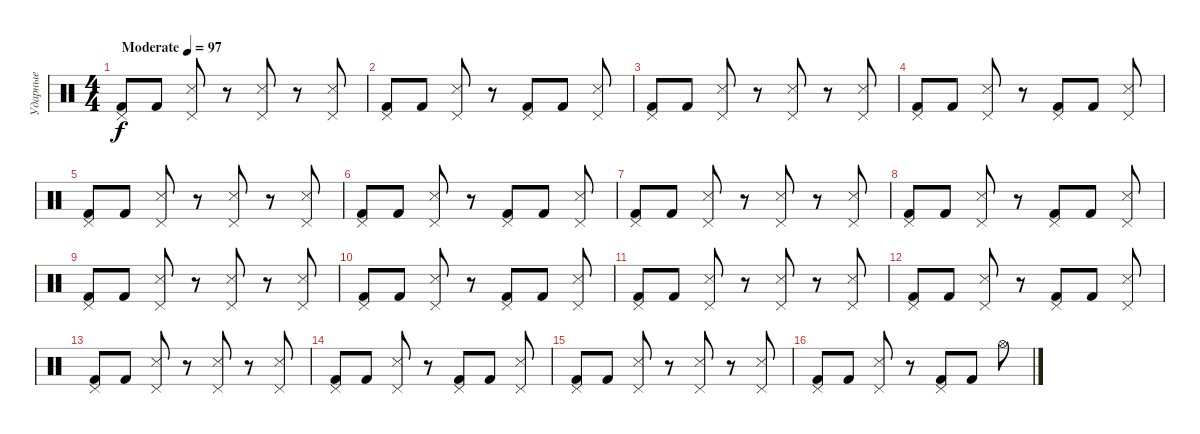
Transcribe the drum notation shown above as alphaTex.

\track ("Ударные" "Ударные") {instrument percussion}
\staff {score}
\articulation defaults
\ts (4 4)
\tempo (97 "Moderate")
\clef neutral
\ks c
("Kick (hit) 2" "Pedal Hi-Hat (hit)").8{dy f} "Kick (hit) 2".8 ("Snare (side stick) 3" "Pedal Hi-Hat (hit)").8 r.8 ("Snare (side stick) 3" "Pedal Hi-Hat (hit)").8 r.8 ("Snare (side stick) 3" "Pedal Hi-Hat (hit)").8 |
("Kick (hit) 2" "Pedal Hi-Hat (hit)").8 "Kick (hit) 2".8 ("Snare (side stick) 3" "Pedal Hi-Hat (hit)").8 r.8 ("Kick (hit) 2" "Pedal Hi-Hat (hit)").8 "Kick (hit) 2".8 ("Snare (side stick) 3" "Pedal Hi-Hat (hit)").8 |
("Kick (hit) 2" "Pedal Hi-Hat (hit)").8 "Kick (hit) 2".8 ("Snare (side stick) 3" "Pedal Hi-Hat (hit)").8 r.8 ("Snare (side stick) 3" "Pedal Hi-Hat (hit)").8 r.8 ("Snare (side stick) 3" "Pedal Hi-Hat (hit)").8 |
("Kick (hit) 2" "Pedal Hi-Hat (hit)").8 "Kick (hit) 2".8 ("Snare (side stick) 3" "Pedal Hi-Hat (hit)").8 r.8 ("Kick (hit) 2" "Pedal Hi-Hat (hit)").8 "Kick (hit) 2".8 ("Snare (side stick) 3" "Pedal Hi-Hat (hit)").8 |
("Kick (hit) 2" "Pedal Hi-Hat (hit)").8 "Kick (hit) 2".8 ("Snare (side stick) 3" "Pedal Hi-Hat (hit)").8 r.8 ("Snare (side stick) 3" "Pedal Hi-Hat (hit)").8 r.8 ("Snare (side stick) 3" "Pedal Hi-Hat (hit)").8 |
("Kick (hit) 2" "Pedal Hi-Hat (hit)").8 "Kick (hit) 2".8 ("Snare (side stick) 3" "Pedal Hi-Hat (hit)").8 r.8 ("Kick (hit) 2" "Pedal Hi-Hat (hit)").8 "Kick (hit) 2".8 ("Snare (side stick) 3" "Pedal Hi-Hat (hit)").8 |
("Kick (hit) 2" "Pedal Hi-Hat (hit)").8 "Kick (hit) 2".8 ("Snare (side stick) 3" "Pedal Hi-Hat (hit)").8 r.8 ("Snare (side stick) 3" "Pedal Hi-Hat (hit)").8 r.8 ("Snare (side stick) 3" "Pedal Hi-Hat (hit)").8 |
("Kick (hit) 2" "Pedal Hi-Hat (hit)").8 "Kick (hit) 2".8 ("Snare (side stick) 3" "Pedal Hi-Hat (hit)").8 r.8 ("Kick (hit) 2" "Pedal Hi-Hat (hit)").8 "Kick (hit) 2".8 ("Snare (side stick) 3" "Pedal Hi-Hat (hit)").8 |
("Kick (hit) 2" "Pedal Hi-Hat (hit)").8 "Kick (hit) 2".8 ("Snare (side stick) 3" "Pedal Hi-Hat (hit)").8 r.8 ("Snare (side stick) 3" "Pedal Hi-Hat (hit)").8 r.8 ("Snare (side stick) 3" "Pedal Hi-Hat (hit)").8 |
("Kick (hit) 2" "Pedal Hi-Hat (hit)").8 "Kick (hit) 2".8 ("Snare (side stick) 3" "Pedal Hi-Hat (hit)").8 r.8 ("Kick (hit) 2" "Pedal Hi-Hat (hit)").8 "Kick (hit) 2".8 ("Snare (side stick) 3" "Pedal Hi-Hat (hit)").8 |
("Kick (hit) 2" "Pedal Hi-Hat (hit)").8 "Kick (hit) 2".8 ("Snare (side stick) 3" "Pedal Hi-Hat (hit)").8 r.8 ("Snare (side stick) 3" "Pedal Hi-Hat (hit)").8 r.8 ("Snare (side stick) 3" "Pedal Hi-Hat (hit)").8 |
("Kick (hit) 2" "Pedal Hi-Hat (hit)").8 "Kick (hit) 2".8 ("Snare (side stick) 3" "Pedal Hi-Hat (hit)").8 r.8 ("Kick (hit) 2" "Pedal Hi-Hat (hit)").8 "Kick (hit) 2".8 ("Snare (side stick) 3" "Pedal Hi-Hat (hit)").8 |
("Kick (hit) 2" "Pedal Hi-Hat (hit)").8 "Kick (hit) 2".8 ("Snare (side stick) 3" "Pedal Hi-Hat (hit)").8 r.8 ("Snare (side stick) 3" "Pedal Hi-Hat (hit)").8 r.8 ("Snare (side stick) 3" "Pedal Hi-Hat (hit)").8 |
("Kick (hit) 2" "Pedal Hi-Hat (hit)").8 "Kick (hit) 2".8 ("Snare (side stick) 3" "Pedal Hi-Hat (hit)").8 r.8 ("Kick (hit) 2" "Pedal Hi-Hat (hit)").8 "Kick (hit) 2".8 ("Snare (side stick) 3" "Pedal Hi-Hat (hit)").8 |
("Kick (hit) 2" "Pedal Hi-Hat (hit)").8 "Kick (hit) 2".8 ("Snare (side stick) 3" "Pedal Hi-Hat (hit)").8 r.8 ("Snare (side stick) 3" "Pedal Hi-Hat (hit)").8 r.8 ("Snare (side stick) 3" "Pedal Hi-Hat (hit)").8 |
("Kick (hit) 2" "Pedal Hi-Hat (hit)").8 "Kick (hit) 2".8 ("Snare (side stick) 3" "Pedal Hi-Hat (hit)").8 r.8 ("Kick (hit) 2" "Pedal Hi-Hat (hit)").8 "Kick (hit) 2".8 "Hi-Hat (open)".8
